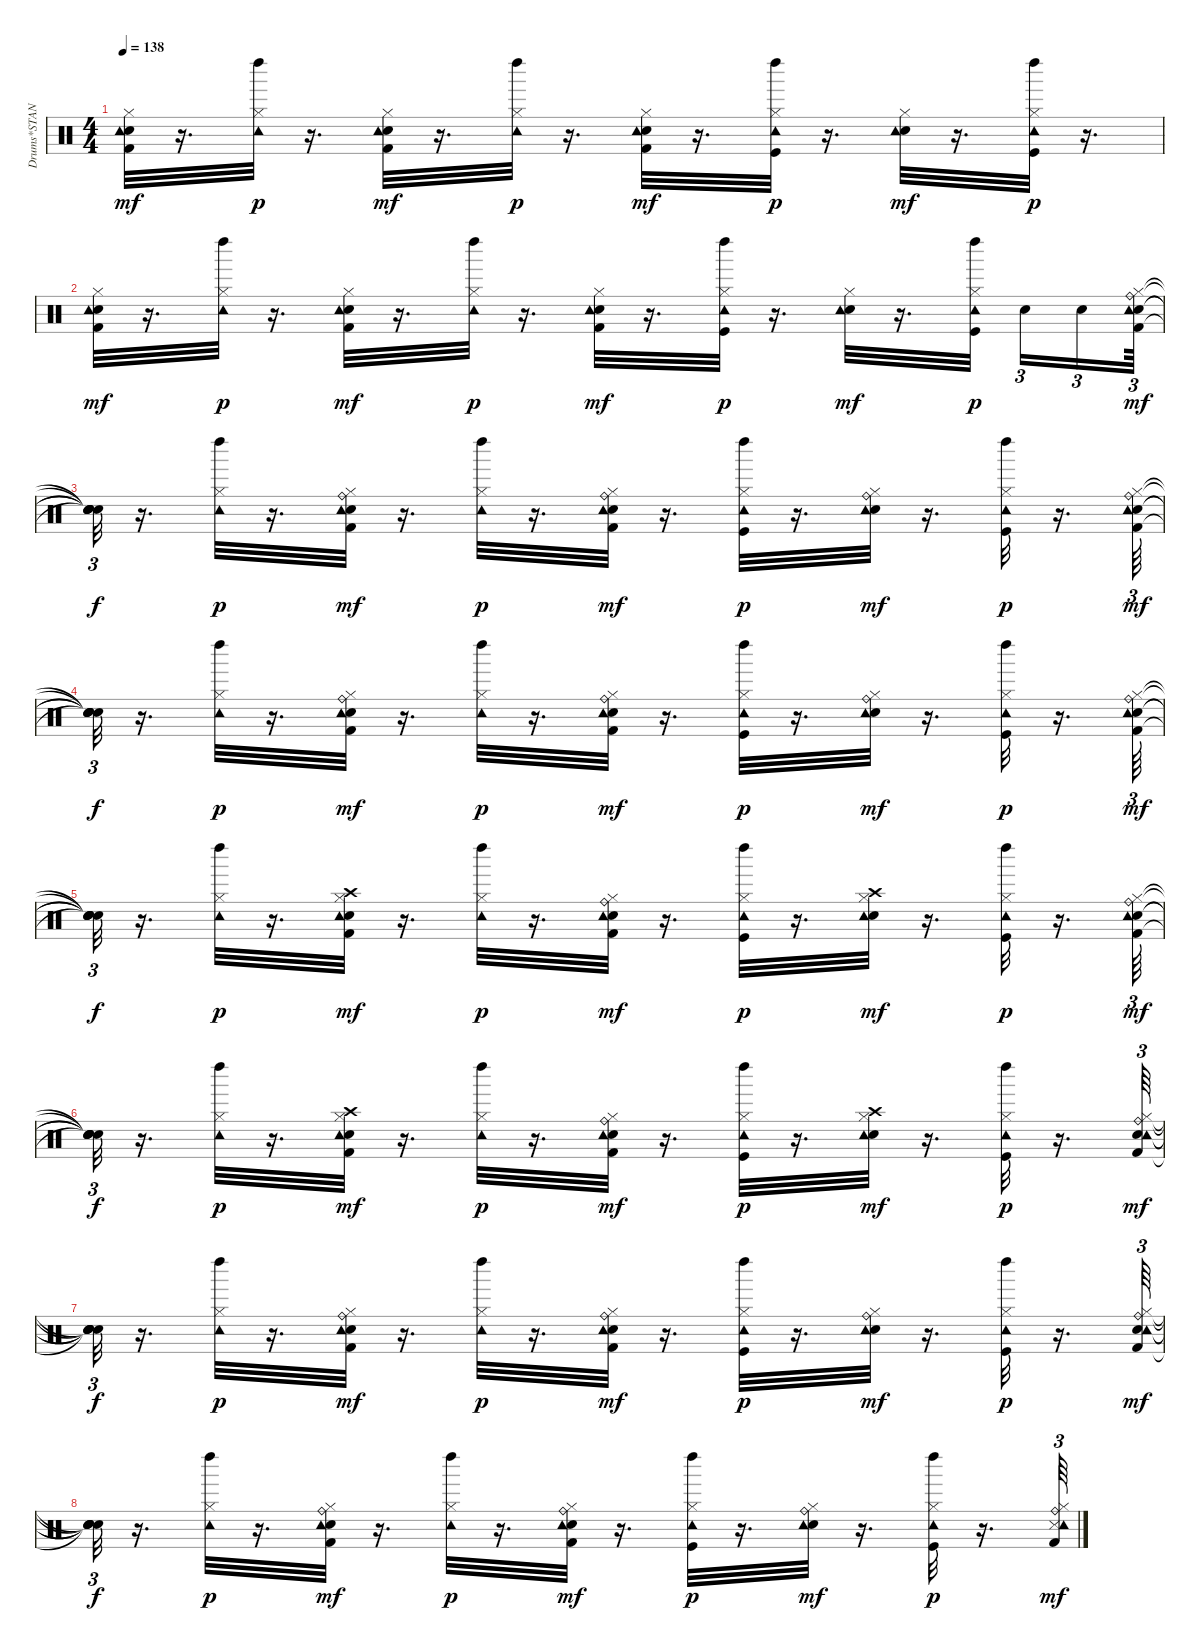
\track ("Drums*STANDARD      " "Drums*STAN") {instrument percussion}
\staff {score}
\articulation defaults
\ts (4 4)
\tempo 138
\clef neutral
\ks c
("Kick (hit) 2" "Hi-Hat (closed)" "Electric Snare (hit)" "Tambourine (hit)").32{dy mf} r.16{d} ("Hi-Hat (closed)" "Left Maraca (hit)" "Tambourine (hit)").32{dy p} r.16{d} ("Kick (hit) 2" "Hi-Hat (closed)" "Electric Snare (hit)" "Tambourine (hit)").32{dy mf} r.16{d} ("Hi-Hat (closed)" "Left Maraca (hit)" "Tambourine (hit)").32{dy p} r.16{d} ("Kick (hit) 2" "Hi-Hat (closed)" "Electric Snare (hit)" "Tambourine (hit)").32{dy mf} r.16{d} ("Hi-Hat (closed)" "Left Maraca (hit)" "Kick (hit)" "Tambourine (hit)").32{dy p} r.16{d} ("Hi-Hat (closed)" "Electric Snare (hit)" "Tambourine (hit)").32{dy mf} r.16{d} ("Hi-Hat (closed)" "Left Maraca (hit)" "Kick (hit)" "Tambourine (hit)").32{dy p} r.16{d} |
("Kick (hit) 2" "Hi-Hat (closed)" "Electric Snare (hit)" "Tambourine (hit)").32{dy mf} r.16{d} ("Hi-Hat (closed)" "Left Maraca (hit)" "Tambourine (hit)").32{dy p} r.16{d} ("Kick (hit) 2" "Hi-Hat (closed)" "Electric Snare (hit)" "Tambourine (hit)").32{dy mf} r.16{d} ("Hi-Hat (closed)" "Left Maraca (hit)" "Tambourine (hit)").32{dy p} r.16{d} ("Kick (hit) 2" "Hi-Hat (closed)" "Electric Snare (hit)" "Tambourine (hit)").32{dy mf} r.16{d} ("Hi-Hat (closed)" "Left Maraca (hit)" "Kick (hit)" "Tambourine (hit)").32{dy p} r.16{d} ("Hi-Hat (closed)" "Electric Snare (hit)" "Tambourine (hit)").32{dy mf} r.16{d} ("Hi-Hat (closed)" "Left Maraca (hit)" "Kick (hit)" "Tambourine (hit)").32{dy p} "Electric Snare (hit)".16{tu (3 2)} "Electric Snare (hit)".16{tu (3 2)} ("Kick (hit) 2" "Hi-Hat (closed)" "Electric Snare (hit)" "Ride (bell)" "Tambourine (hit)").64{tu (3 2) dy mf} |
("Snare (hit)"{t} "Snare (hit)"{t} "Snare (hit)"{t} "Snare (hit)"{t} "Snare (hit)"{t}).32{tu (3 2) dy f} r.16{d} ("Hi-Hat (closed)" "Left Maraca (hit)" "Tambourine (hit)").32{dy p} r.16{d} ("Kick (hit) 2" "Hi-Hat (closed)" "Electric Snare (hit)" "Ride (bell)" "Tambourine (hit)").32{dy mf} r.16{d} ("Hi-Hat (closed)" "Left Maraca (hit)" "Tambourine (hit)").32{dy p} r.16{d} ("Kick (hit) 2" "Hi-Hat (closed)" "Electric Snare (hit)" "Ride (bell)" "Tambourine (hit)").32{dy mf} r.16{d} ("Hi-Hat (closed)" "Left Maraca (hit)" "Kick (hit)" "Tambourine (hit)").32{dy p} r.16{d} ("Hi-Hat (closed)" "Electric Snare (hit)" "Ride (bell)" "Tambourine (hit)").32{dy mf} r.16{d} ("Hi-Hat (closed)" "Left Maraca (hit)" "Kick (hit)" "Tambourine (hit)").32{dy p} r.16{d} ("Kick (hit) 2" "Hi-Hat (closed)" "Electric Snare (hit)" "Ride (bell)" "Tambourine (hit)").64{tu (3 2) dy mf} |
("Snare (hit)"{t} "Snare (hit)"{t} "Snare (hit)"{t} "Snare (hit)"{t} "Snare (hit)"{t}).32{tu (3 2) dy f} r.16{d} ("Hi-Hat (closed)" "Left Maraca (hit)" "Tambourine (hit)").32{dy p} r.16{d} ("Kick (hit) 2" "Hi-Hat (closed)" "Electric Snare (hit)" "Ride (bell)" "Tambourine (hit)").32{dy mf} r.16{d} ("Hi-Hat (closed)" "Left Maraca (hit)" "Tambourine (hit)").32{dy p} r.16{d} ("Kick (hit) 2" "Hi-Hat (closed)" "Electric Snare (hit)" "Ride (bell)" "Tambourine (hit)").32{dy mf} r.16{d} ("Hi-Hat (closed)" "Left Maraca (hit)" "Kick (hit)" "Tambourine (hit)").32{dy p} r.16{d} ("Hi-Hat (closed)" "Electric Snare (hit)" "Ride (bell)" "Tambourine (hit)").32{dy mf} r.16{d} ("Hi-Hat (closed)" "Left Maraca (hit)" "Kick (hit)" "Tambourine (hit)").32{dy p} r.16{d} ("Kick (hit) 2" "Hi-Hat (closed)" "Electric Snare (hit)" "Ride (bell)" "Tambourine (hit)").64{tu (3 2) dy mf} |
("Snare (hit)"{t} "Snare (hit)"{t} "Snare (hit)"{t} "Snare (hit)"{t} "Snare (hit)"{t}).32{tu (3 2) dy f} r.16{d} ("Hi-Hat (closed)" "Left Maraca (hit)" "Tambourine (hit)").32{dy p} r.16{d} ("Kick (hit) 2" "Hi-Hat (closed)" "Crash high (hit)" "Electric Snare (hit)" "Tambourine (hit)").32{dy mf} r.16{d} ("Hi-Hat (closed)" "Left Maraca (hit)" "Tambourine (hit)").32{dy p} r.16{d} ("Kick (hit) 2" "Hi-Hat (closed)" "Electric Snare (hit)" "Ride (bell)" "Tambourine (hit)").32{dy mf} r.16{d} ("Hi-Hat (closed)" "Left Maraca (hit)" "Kick (hit)" "Tambourine (hit)").32{dy p} r.16{d} ("Hi-Hat (closed)" "Crash high (hit)" "Electric Snare (hit)" "Tambourine (hit)").32{dy mf} r.16{d} ("Hi-Hat (closed)" "Left Maraca (hit)" "Kick (hit)" "Tambourine (hit)").32{dy p} r.16{d} ("Kick (hit) 2" "Hi-Hat (closed)" "Electric Snare (hit)" "Ride (bell)" "Tambourine (hit)").64{tu (3 2) dy mf} |
("Snare (hit)"{t} "Snare (hit)"{t} "Snare (hit)"{t} "Snare (hit)"{t} "Snare (hit)"{t}).32{tu (3 2) dy f} r.16{d} ("Hi-Hat (closed)" "Left Maraca (hit)" "Tambourine (hit)").32{dy p} r.16{d} ("Kick (hit) 2" "Hi-Hat (closed)" "Crash high (hit)" "Electric Snare (hit)" "Tambourine (hit)").32{dy mf} r.16{d} ("Hi-Hat (closed)" "Left Maraca (hit)" "Tambourine (hit)").32{dy p} r.16{d} ("Kick (hit) 2" "Hi-Hat (closed)" "Electric Snare (hit)" "Ride (bell)" "Tambourine (hit)").32{dy mf} r.16{d} ("Hi-Hat (closed)" "Left Maraca (hit)" "Kick (hit)" "Tambourine (hit)").32{dy p} r.16{d} ("Hi-Hat (closed)" "Crash high (hit)" "Electric Snare (hit)" "Tambourine (hit)").32{dy mf} r.16{d} ("Hi-Hat (closed)" "Left Maraca (hit)" "Kick (hit)" "Tambourine (hit)").32{dy p} r.16{d} ("Kick (hit) 2" "Snare (hit) 2" "Hi-Hat (closed)" "Ride (bell)" "Tambourine (hit)").64{tu (3 2) dy mf} |
("Snare (hit)"{t} "Snare (hit)"{t} "Snare (hit)"{t} "Snare (hit)"{t} "Snare (hit)"{t}).32{tu (3 2) dy f} r.16{d} ("Hi-Hat (closed)" "Left Maraca (hit)" "Tambourine (hit)").32{dy p} r.16{d} ("Kick (hit) 2" "Snare (hit) 2" "Hi-Hat (closed)" "Ride (bell)" "Tambourine (hit)").32{dy mf} r.16{d} ("Hi-Hat (closed)" "Left Maraca (hit)" "Tambourine (hit)").32{dy p} r.16{d} ("Kick (hit) 2" "Snare (hit) 2" "Hi-Hat (closed)" "Ride (bell)" "Tambourine (hit)").32{dy mf} r.16{d} ("Hi-Hat (closed)" "Left Maraca (hit)" "Kick (hit)" "Tambourine (hit)").32{dy p} r.16{d} ("Snare (hit) 2" "Hi-Hat (closed)" "Ride (bell)" "Tambourine (hit)").32{dy mf} r.16{d} ("Hi-Hat (closed)" "Left Maraca (hit)" "Kick (hit)" "Tambourine (hit)").32{dy p} r.16{d} ("Kick (hit) 2" "Snare (hit) 2" "Hi-Hat (closed)" "Ride (bell)" "Tambourine (hit)").64{tu (3 2) dy mf} |
("Snare (hit)"{t} "Snare (hit)"{t} "Snare (hit)"{t} "Snare (hit)"{t} "Snare (hit)"{t}).32{tu (3 2) dy f} r.16{d} ("Hi-Hat (closed)" "Left Maraca (hit)" "Tambourine (hit)").32{dy p} r.16{d} ("Kick (hit) 2" "Snare (hit) 2" "Hi-Hat (closed)" "Ride (bell)" "Tambourine (hit)").32{dy mf} r.16{d} ("Hi-Hat (closed)" "Left Maraca (hit)" "Tambourine (hit)").32{dy p} r.16{d} ("Kick (hit) 2" "Snare (hit) 2" "Hi-Hat (closed)" "Ride (bell)" "Tambourine (hit)").32{dy mf} r.16{d} ("Hi-Hat (closed)" "Left Maraca (hit)" "Kick (hit)" "Tambourine (hit)").32{dy p} r.16{d} ("Snare (hit) 2" "Hi-Hat (closed)" "Ride (bell)" "Tambourine (hit)").32{dy mf} r.16{d} ("Hi-Hat (closed)" "Left Maraca (hit)" "Kick (hit)" "Tambourine (hit)").32{dy p} r.16{d} ("Kick (hit) 2" "Hi-Hat (closed)" "Snare (side stick) 3" "Ride (bell)" "Tambourine (hit)").64{tu (3 2) dy mf}
